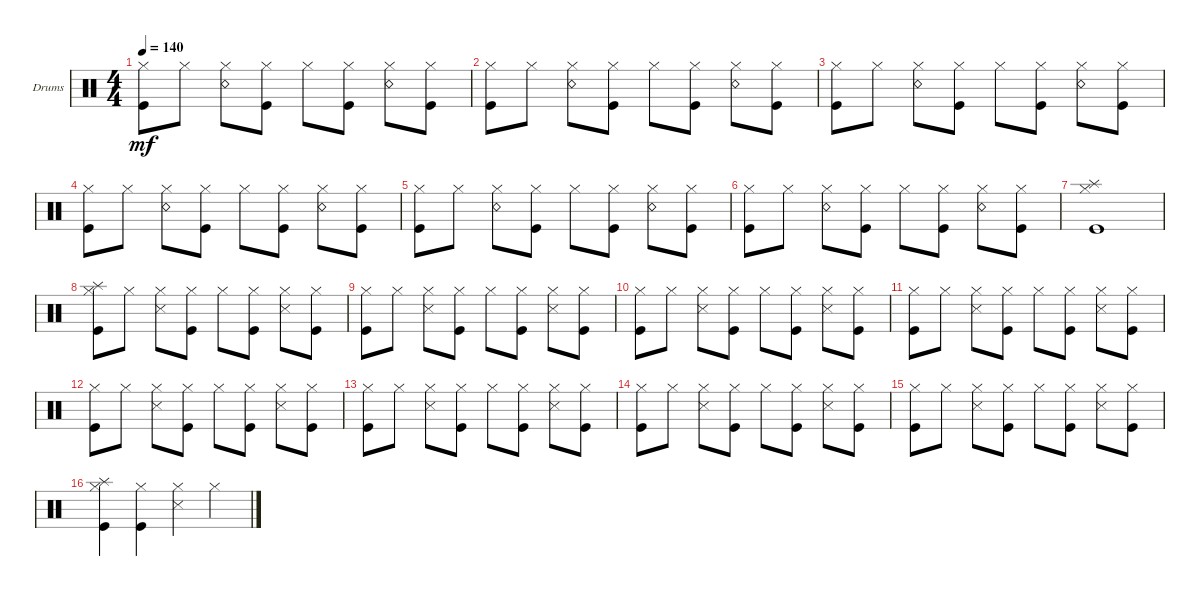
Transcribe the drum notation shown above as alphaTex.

\defaultSystemsLayout 4
\bracketExtendMode groupsimilarinstruments
\firstSystemTrackNameOrientation horizontal
\otherSystemsTrackNameOrientation horizontal
\track ("Drumkit" "Drums") {instrument percussion}
\staff {score}
\articulation defaults
\ts (4 4)
\tempo 140
\clef neutral
\ks c
("Kick (hit)" "Hi-Hat (closed)").8{dy mf} "Hi-Hat (closed)".8 ("Hi-Hat (closed)" "Snare (rim shot)").8 ("Hi-Hat (closed)" "Kick (hit)").8 "Hi-Hat (closed)".8 ("Hi-Hat (closed)" "Kick (hit)").8 ("Hi-Hat (closed)" "Snare (rim shot)").8 ("Hi-Hat (closed)" "Kick (hit)").8 |
("Kick (hit)" "Hi-Hat (closed)").8 "Hi-Hat (closed)".8 ("Hi-Hat (closed)" "Snare (rim shot)").8 ("Hi-Hat (closed)" "Kick (hit)").8 "Hi-Hat (closed)".8 ("Hi-Hat (closed)" "Kick (hit)").8 ("Hi-Hat (closed)" "Snare (rim shot)").8 ("Hi-Hat (closed)" "Kick (hit)").8 |
("Kick (hit)" "Hi-Hat (closed)").8 "Hi-Hat (closed)".8 ("Hi-Hat (closed)" "Snare (rim shot)").8 ("Hi-Hat (closed)" "Kick (hit)").8 "Hi-Hat (closed)".8 ("Hi-Hat (closed)" "Kick (hit)").8 ("Hi-Hat (closed)" "Snare (rim shot)").8 ("Hi-Hat (closed)" "Kick (hit)").8 |
("Kick (hit)" "Hi-Hat (closed)").8 "Hi-Hat (closed)".8 ("Hi-Hat (closed)" "Snare (rim shot)").8 ("Hi-Hat (closed)" "Kick (hit)").8 "Hi-Hat (closed)".8 ("Hi-Hat (closed)" "Kick (hit)").8 ("Hi-Hat (closed)" "Snare (rim shot)").8 ("Hi-Hat (closed)" "Kick (hit)").8 |
("Kick (hit)" "Hi-Hat (closed)").8 "Hi-Hat (closed)".8 ("Hi-Hat (closed)" "Snare (rim shot)").8 ("Hi-Hat (closed)" "Kick (hit)").8 "Hi-Hat (closed)".8 ("Hi-Hat (closed)" "Kick (hit)").8 ("Hi-Hat (closed)" "Snare (rim shot)").8 ("Hi-Hat (closed)" "Kick (hit)").8 |
("Kick (hit)" "Hi-Hat (closed)").8 "Hi-Hat (closed)".8 ("Hi-Hat (closed)" "Snare (rim shot)").8 ("Hi-Hat (closed)" "Kick (hit)").8 "Hi-Hat (closed)".8 ("Hi-Hat (closed)" "Kick (hit)").8 ("Hi-Hat (closed)" "Snare (rim shot)").8 ("Hi-Hat (closed)" "Kick (hit)").8 |
("Kick (hit)" "Hi-Hat (closed)" "Splash (hit)").1 |
("Kick (hit)" "Hi-Hat (closed)" "Splash (hit)").8 "Hi-Hat (closed)".8 ("Hi-Hat (closed)" "Snare (side stick) 3").8 ("Hi-Hat (closed)" "Kick (hit)").8 "Hi-Hat (closed)".8 ("Hi-Hat (closed)" "Kick (hit)").8 ("Hi-Hat (closed)" "Snare (side stick) 3").8 ("Hi-Hat (closed)" "Kick (hit)").8 |
("Kick (hit)" "Hi-Hat (closed)").8 "Hi-Hat (closed)".8 ("Hi-Hat (closed)" "Snare (side stick) 3").8 ("Hi-Hat (closed)" "Kick (hit)").8 "Hi-Hat (closed)".8 ("Hi-Hat (closed)" "Kick (hit)").8 ("Hi-Hat (closed)" "Snare (side stick) 3").8 ("Hi-Hat (closed)" "Kick (hit)").8 |
("Kick (hit)" "Hi-Hat (closed)").8 "Hi-Hat (closed)".8 ("Hi-Hat (closed)" "Snare (side stick) 3").8 ("Hi-Hat (closed)" "Kick (hit)").8 "Hi-Hat (closed)".8 ("Hi-Hat (closed)" "Kick (hit)").8 ("Hi-Hat (closed)" "Snare (side stick) 3").8 ("Hi-Hat (closed)" "Kick (hit)").8 |
("Kick (hit)" "Hi-Hat (closed)").8 "Hi-Hat (closed)".8 ("Hi-Hat (closed)" "Snare (side stick) 3").8 ("Hi-Hat (closed)" "Kick (hit)").8 "Hi-Hat (closed)".8 ("Hi-Hat (closed)" "Kick (hit)").8 ("Hi-Hat (closed)" "Snare (side stick) 3").8 ("Hi-Hat (closed)" "Kick (hit)").8 |
("Kick (hit)" "Hi-Hat (closed)").8 "Hi-Hat (closed)".8 ("Hi-Hat (closed)" "Snare (side stick) 3").8 ("Hi-Hat (closed)" "Kick (hit)").8 "Hi-Hat (closed)".8 ("Hi-Hat (closed)" "Kick (hit)").8 ("Hi-Hat (closed)" "Snare (side stick) 3").8 ("Hi-Hat (closed)" "Kick (hit)").8 |
("Kick (hit)" "Hi-Hat (closed)").8 "Hi-Hat (closed)".8 ("Hi-Hat (closed)" "Snare (side stick) 3").8 ("Hi-Hat (closed)" "Kick (hit)").8 "Hi-Hat (closed)".8 ("Hi-Hat (closed)" "Kick (hit)").8 ("Hi-Hat (closed)" "Snare (side stick) 3").8 ("Hi-Hat (closed)" "Kick (hit)").8 |
("Kick (hit)" "Hi-Hat (closed)").8 "Hi-Hat (closed)".8 ("Hi-Hat (closed)" "Snare (side stick) 3").8 ("Hi-Hat (closed)" "Kick (hit)").8 "Hi-Hat (closed)".8 ("Hi-Hat (closed)" "Kick (hit)").8 ("Hi-Hat (closed)" "Snare (side stick) 3").8 ("Hi-Hat (closed)" "Kick (hit)").8 |
("Kick (hit)" "Hi-Hat (closed)").8 "Hi-Hat (closed)".8 ("Hi-Hat (closed)" "Snare (side stick) 3").8 ("Hi-Hat (closed)" "Kick (hit)").8 "Hi-Hat (closed)".8 ("Hi-Hat (closed)" "Kick (hit)").8 ("Hi-Hat (closed)" "Snare (side stick) 3").8 ("Hi-Hat (closed)" "Kick (hit)").8 |
("Hi-Hat (closed)" "Kick (hit)" "Splash (hit)").4 ("Hi-Hat (closed)" "Kick (hit)").4 ("Hi-Hat (closed)" "Snare (side stick) 3").4 "Hi-Hat (closed)".4
